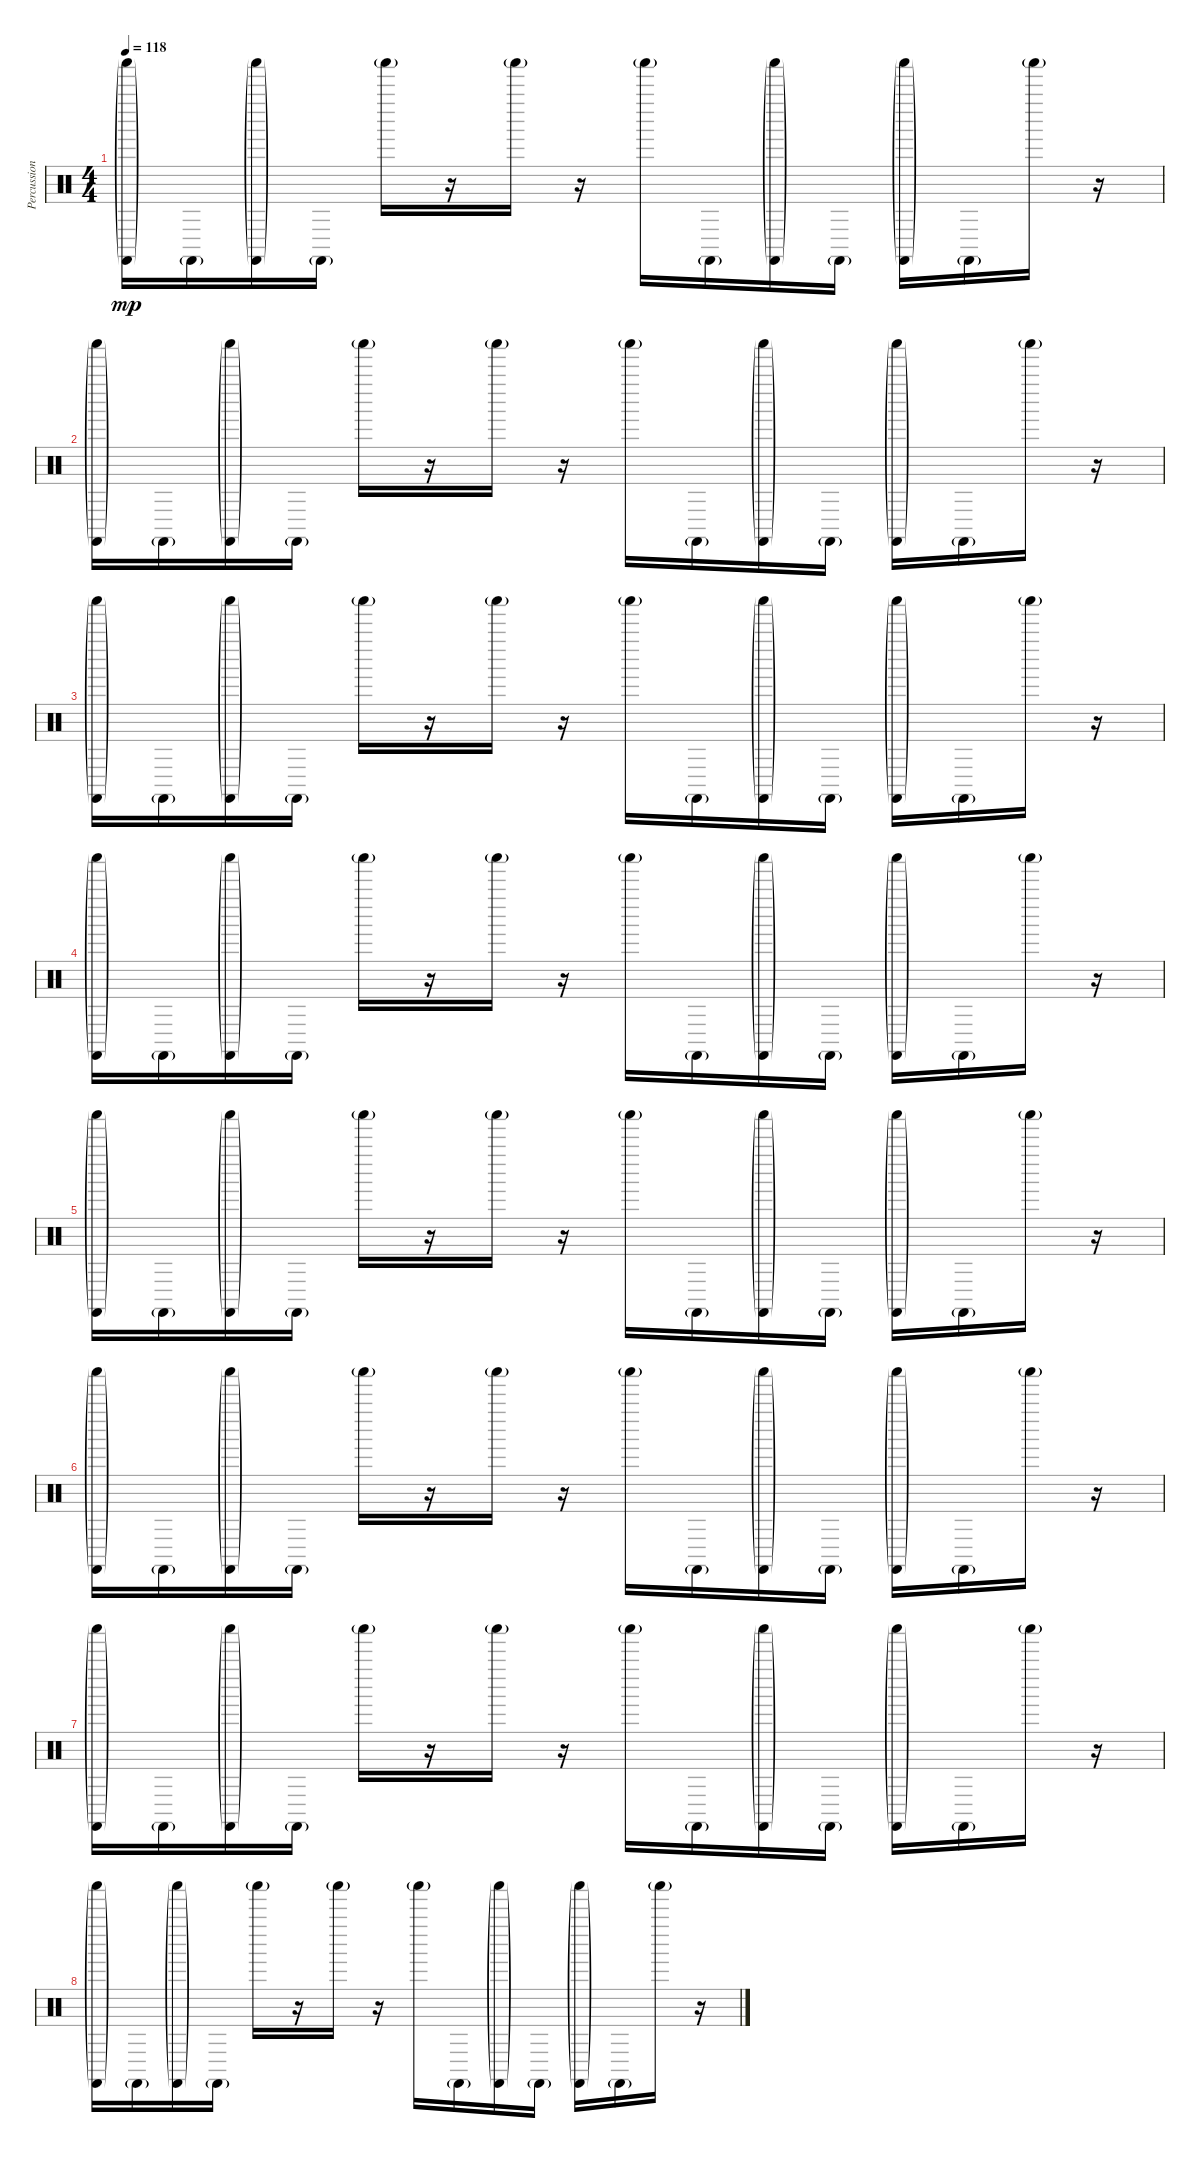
\track ("Percussion" "Percussion") {instrument percussion}
\staff {score}
\articulation defaults
\ts (4 4)
\tempo 118
\clef neutral
\ks c
("Castanets (hit)"{g} "Shaker (hit)"{g}).16{dy mp} "Castanets (hit)"{g}.16 ("Castanets (hit)"{g} "Shaker (hit)"{g}).16 "Castanets (hit)"{g}.16 "Shaker (hit)"{g}.16 r.16 "Shaker (hit)"{g}.16 r.16 "Shaker (hit)"{g}.16 "Castanets (hit)"{g}.16 ("Castanets (hit)"{g} "Shaker (hit)"{g}).16 "Castanets (hit)"{g}.16 ("Castanets (hit)"{g} "Shaker (hit)"{g}).16 "Castanets (hit)"{g}.16 "Shaker (hit)"{g}.16 r.16 |
("Castanets (hit)"{g} "Shaker (hit)"{g}).16 "Castanets (hit)"{g}.16 ("Castanets (hit)"{g} "Shaker (hit)"{g}).16 "Castanets (hit)"{g}.16 "Shaker (hit)"{g}.16 r.16 "Shaker (hit)"{g}.16 r.16 "Shaker (hit)"{g}.16 "Castanets (hit)"{g}.16 ("Castanets (hit)"{g} "Shaker (hit)"{g}).16 "Castanets (hit)"{g}.16 ("Castanets (hit)"{g} "Shaker (hit)"{g}).16 "Castanets (hit)"{g}.16 "Shaker (hit)"{g}.16 r.16 |
("Castanets (hit)"{g} "Shaker (hit)"{g}).16 "Castanets (hit)"{g}.16 ("Castanets (hit)"{g} "Shaker (hit)"{g}).16 "Castanets (hit)"{g}.16 "Shaker (hit)"{g}.16 r.16 "Shaker (hit)"{g}.16 r.16 "Shaker (hit)"{g}.16 "Castanets (hit)"{g}.16 ("Castanets (hit)"{g} "Shaker (hit)"{g}).16 "Castanets (hit)"{g}.16 ("Castanets (hit)"{g} "Shaker (hit)"{g}).16 "Castanets (hit)"{g}.16 "Shaker (hit)"{g}.16 r.16 |
("Castanets (hit)"{g} "Shaker (hit)"{g}).16 "Castanets (hit)"{g}.16 ("Castanets (hit)"{g} "Shaker (hit)"{g}).16 "Castanets (hit)"{g}.16 "Shaker (hit)"{g}.16 r.16 "Shaker (hit)"{g}.16 r.16 "Shaker (hit)"{g}.16 "Castanets (hit)"{g}.16 ("Castanets (hit)"{g} "Shaker (hit)"{g}).16 "Castanets (hit)"{g}.16 ("Castanets (hit)"{g} "Shaker (hit)"{g}).16 "Castanets (hit)"{g}.16 "Shaker (hit)"{g}.16 r.16 |
("Castanets (hit)"{g} "Shaker (hit)"{g}).16 "Castanets (hit)"{g}.16 ("Castanets (hit)"{g} "Shaker (hit)"{g}).16 "Castanets (hit)"{g}.16 "Shaker (hit)"{g}.16 r.16 "Shaker (hit)"{g}.16 r.16 "Shaker (hit)"{g}.16 "Castanets (hit)"{g}.16 ("Castanets (hit)"{g} "Shaker (hit)"{g}).16 "Castanets (hit)"{g}.16 ("Castanets (hit)"{g} "Shaker (hit)"{g}).16 "Castanets (hit)"{g}.16 "Shaker (hit)"{g}.16 r.16 |
("Castanets (hit)"{g} "Shaker (hit)"{g}).16 "Castanets (hit)"{g}.16 ("Castanets (hit)"{g} "Shaker (hit)"{g}).16 "Castanets (hit)"{g}.16 "Shaker (hit)"{g}.16 r.16 "Shaker (hit)"{g}.16 r.16 "Shaker (hit)"{g}.16 "Castanets (hit)"{g}.16 ("Castanets (hit)"{g} "Shaker (hit)"{g}).16 "Castanets (hit)"{g}.16 ("Castanets (hit)"{g} "Shaker (hit)"{g}).16 "Castanets (hit)"{g}.16 "Shaker (hit)"{g}.16 r.16 |
("Castanets (hit)"{g} "Shaker (hit)"{g}).16 "Castanets (hit)"{g}.16 ("Castanets (hit)"{g} "Shaker (hit)"{g}).16 "Castanets (hit)"{g}.16 "Shaker (hit)"{g}.16 r.16 "Shaker (hit)"{g}.16 r.16 "Shaker (hit)"{g}.16 "Castanets (hit)"{g}.16 ("Castanets (hit)"{g} "Shaker (hit)"{g}).16 "Castanets (hit)"{g}.16 ("Castanets (hit)"{g} "Shaker (hit)"{g}).16 "Castanets (hit)"{g}.16 "Shaker (hit)"{g}.16 r.16 |
("Castanets (hit)"{g} "Shaker (hit)"{g}).16 "Castanets (hit)"{g}.16 ("Castanets (hit)"{g} "Shaker (hit)"{g}).16 "Castanets (hit)"{g}.16 "Shaker (hit)"{g}.16 r.16 "Shaker (hit)"{g}.16 r.16 "Shaker (hit)"{g}.16 "Castanets (hit)"{g}.16 ("Castanets (hit)"{g} "Shaker (hit)"{g}).16 "Castanets (hit)"{g}.16 ("Castanets (hit)"{g} "Shaker (hit)"{g}).16 "Castanets (hit)"{g}.16 "Shaker (hit)"{g}.16 r.16
